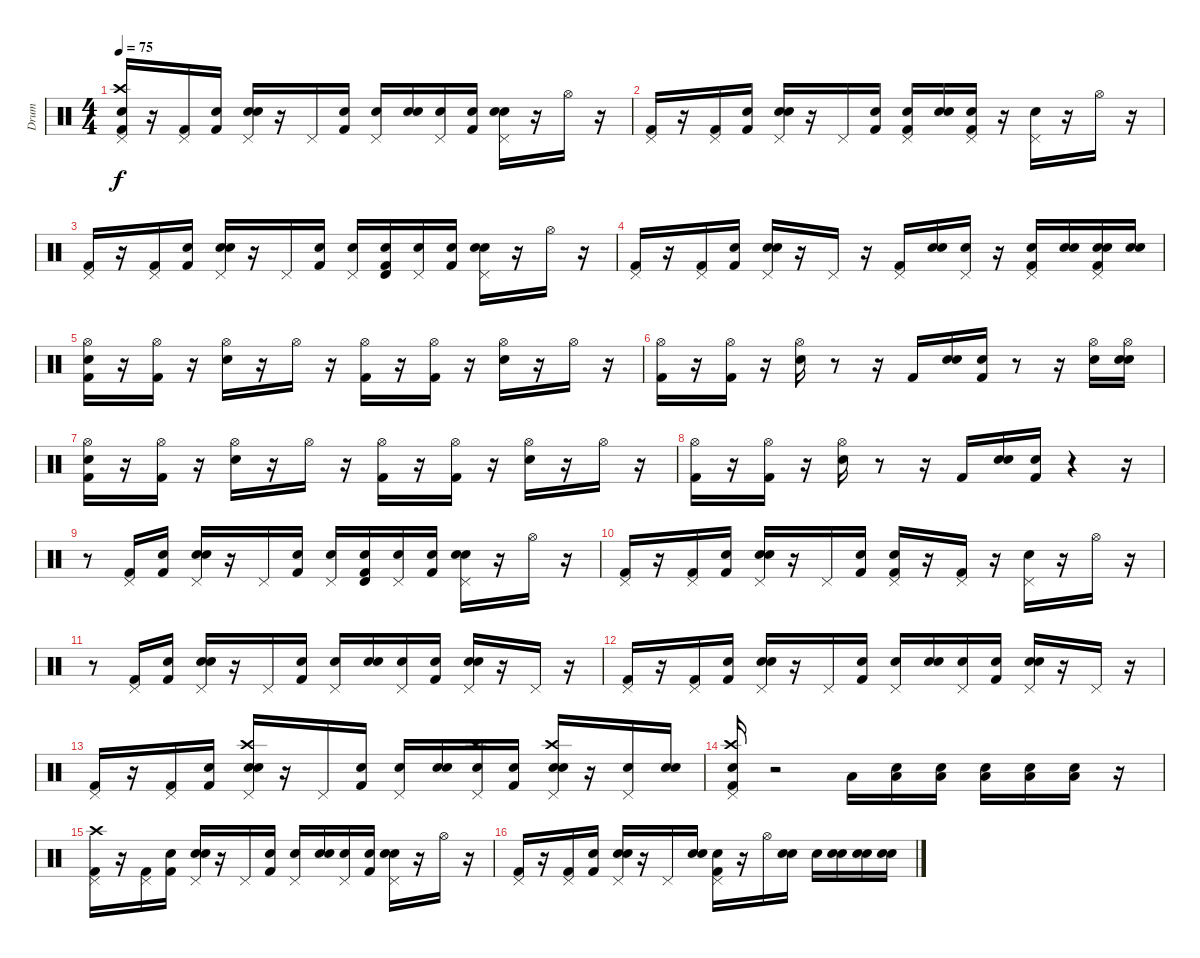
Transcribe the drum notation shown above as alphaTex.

\track ("Drum" "Drum") {instrument percussion}
\staff {score}
\articulation defaults
\ts (4 4)
\tempo 75
\clef neutral
\ks c
("Snare (hit)" "Crash high (hit)" "Pedal Hi-Hat (hit)" "Kick (hit) 2").16{dy f} r.16 ("Kick (hit) 2" "Pedal Hi-Hat (hit)").16 ("Snare (hit)" "Kick (hit) 2").16 ("Snare (hit)" "Pedal Hi-Hat (hit)" "Snare (hit) 2").16 r.16 "Pedal Hi-Hat (hit)".16 ("Snare (hit)" "Kick (hit) 2").16 ("Snare (hit)" "Pedal Hi-Hat (hit)").16 ("Snare (hit)" "Snare (hit) 2").16 ("Snare (hit)" "Pedal Hi-Hat (hit)").16 ("Snare (hit)" "Kick (hit) 2").16 ("Snare (hit)" "Pedal Hi-Hat (hit)" "Snare (hit) 2").16 r.16 "Hi-Hat (open)".16 r.16 |
("Pedal Hi-Hat (hit)" "Kick (hit) 2").16 r.16 ("Pedal Hi-Hat (hit)" "Kick (hit) 2").16 ("Snare (hit)" "Kick (hit) 2").16 ("Snare (hit)" "Pedal Hi-Hat (hit)" "Snare (hit) 2").16 r.16 "Pedal Hi-Hat (hit)".16 ("Snare (hit)" "Kick (hit) 2").16 ("Snare (hit)" "Kick (hit) 2" "Pedal Hi-Hat (hit)").16 ("Snare (hit)" "Snare (hit) 2").16 ("Snare (hit)" "Kick (hit) 2" "Pedal Hi-Hat (hit)").16 r.16 ("Pedal Hi-Hat (hit)" "Snare (hit) 2").16 r.16 "Hi-Hat (open)".16 r.16 |
("Pedal Hi-Hat (hit)" "Kick (hit) 2").16 r.16 ("Kick (hit) 2" "Pedal Hi-Hat (hit)").16 ("Snare (hit)" "Kick (hit) 2").16 ("Snare (hit)" "Pedal Hi-Hat (hit)" "Snare (hit) 2").16 r.16 "Pedal Hi-Hat (hit)".16 ("Snare (hit)" "Kick (hit) 2").16 ("Snare (hit)" "Pedal Hi-Hat (hit)").16 ("Snare (hit)" "Timbale high (hit)" "Kick (hit) 2").16 ("Snare (hit)" "Pedal Hi-Hat (hit)").16 ("Snare (hit)" "Kick (hit) 2").16 ("Snare (hit)" "Pedal Hi-Hat (hit)" "Snare (hit) 2").16 r.16 "Hi-Hat (open)".16 r.16 |
("Pedal Hi-Hat (hit)" "Kick (hit) 2").16 r.16 ("Pedal Hi-Hat (hit)" "Kick (hit) 2").16 ("Snare (hit)" "Kick (hit) 2").16 ("Snare (hit)" "Snare (hit) 2" "Pedal Hi-Hat (hit)").16 r.16 "Pedal Hi-Hat (hit)".16 r.16 ("Pedal Hi-Hat (hit)" "Kick (hit) 2").16 ("Snare (hit)" "Snare (hit) 2").16 ("Snare (hit)" "Pedal Hi-Hat (hit)").16 r.16 ("Snare (hit) 2" "Kick (hit) 2" "Pedal Hi-Hat (hit)").16 ("Snare (hit)" "Snare (hit) 2").16 ("Snare (hit)" "Snare (hit) 2" "Pedal Hi-Hat (hit)" "Kick (hit) 2").16 ("Snare (hit)" "Snare (hit) 2").16 |
("Snare (hit)" "Hi-Hat (open)" "Kick (hit) 2").16 r.16 ("Hi-Hat (open)" "Kick (hit) 2").16 r.16 ("Hi-Hat (open)" "Snare (hit) 2").16 r.16 "Hi-Hat (open)".16 r.16 ("Kick (hit) 2" "Hi-Hat (open)").16 r.16 ("Kick (hit) 2" "Hi-Hat (open)").16 r.16 ("Snare (hit) 2" "Hi-Hat (open)").16 r.16 "Hi-Hat (open)".16 r.16 |
("Hi-Hat (open)" "Kick (hit) 2").16 r.16 ("Hi-Hat (open)" "Kick (hit) 2").16 r.16 ("Snare (hit) 2" "Hi-Hat (open)").16 r.8 r.16 "Kick (hit) 2".16 ("Snare (hit)" "Electric Snare (hit)").16 ("Snare (hit)" "Kick (hit) 2").16 r.8 r.16 ("Hi-Hat (open)" "Snare (hit) 2").16 ("Snare (hit)" "Hi-Hat (open)" "Snare (hit) 2").16 |
("Snare (hit)" "Hi-Hat (open)" "Kick (hit) 2").16 r.16 ("Hi-Hat (open)" "Kick (hit) 2").16 r.16 ("Hi-Hat (open)" "Snare (hit) 2").16 r.16 "Hi-Hat (open)".16 r.16 ("Kick (hit) 2" "Hi-Hat (open)").16 r.16 ("Kick (hit) 2" "Hi-Hat (open)").16 r.16 ("Snare (hit) 2" "Hi-Hat (open)").16 r.16 "Hi-Hat (open)".16 r.16 |
("Hi-Hat (open)" "Kick (hit) 2").16 r.16 ("Hi-Hat (open)" "Kick (hit) 2").16 r.16 ("Snare (hit) 2" "Hi-Hat (open)").16 r.8 r.16 "Kick (hit) 2".16 ("Snare (hit)" "Electric Snare (hit)").16 ("Snare (hit)" "Kick (hit) 2").16 r.4 r.16 |
r.8 ("Kick (hit) 2" "Pedal Hi-Hat (hit)").16 ("Snare (hit)" "Kick (hit) 2").16 ("Snare (hit)" "Pedal Hi-Hat (hit)" "Snare (hit) 2").16 r.16 "Pedal Hi-Hat (hit)".16 ("Snare (hit)" "Kick (hit) 2").16 ("Snare (hit)" "Pedal Hi-Hat (hit)").16 ("Snare (hit)" "Timbale high (hit)" "Kick (hit) 2").16 ("Snare (hit)" "Pedal Hi-Hat (hit)").16 ("Snare (hit)" "Kick (hit) 2").16 ("Snare (hit)" "Pedal Hi-Hat (hit)" "Snare (hit) 2").16 r.16 "Hi-Hat (open)".16 r.16 |
("Pedal Hi-Hat (hit)" "Kick (hit) 2").16 r.16 ("Pedal Hi-Hat (hit)" "Kick (hit) 2").16 ("Snare (hit)" "Kick (hit) 2").16 ("Snare (hit)" "Snare (hit) 2" "Pedal Hi-Hat (hit)").16 r.16 "Pedal Hi-Hat (hit)".16 ("Snare (hit)" "Kick (hit) 2").16 ("Snare (hit)" "Pedal Hi-Hat (hit)" "Kick (hit) 2").16 r.16 ("Kick (hit) 2" "Pedal Hi-Hat (hit)").16 r.16 ("Pedal Hi-Hat (hit)" "Snare (hit) 2").16 r.16 "Hi-Hat (open)".16 r.16 |
r.8 ("Kick (hit) 2" "Pedal Hi-Hat (hit)").16 ("Snare (hit)" "Kick (hit) 2").16 ("Snare (hit)" "Pedal Hi-Hat (hit)" "Snare (hit) 2").16 r.16 "Pedal Hi-Hat (hit)".16 ("Snare (hit)" "Kick (hit) 2").16 ("Snare (hit)" "Pedal Hi-Hat (hit)").16 ("Snare (hit)" "Snare (hit) 2").16 ("Snare (hit)" "Pedal Hi-Hat (hit)").16 ("Snare (hit)" "Kick (hit) 2").16 ("Snare (hit)" "Pedal Hi-Hat (hit)" "Snare (hit) 2").16 r.16 "Pedal Hi-Hat (hit)".16 r.16 |
("Kick (hit) 2" "Pedal Hi-Hat (hit)").16 r.16 ("Kick (hit) 2" "Pedal Hi-Hat (hit)").16 ("Snare (hit)" "Kick (hit) 2").16 ("Snare (hit)" "Pedal Hi-Hat (hit)" "Snare (hit) 2").16 r.16 "Pedal Hi-Hat (hit)".16 ("Snare (hit)" "Kick (hit) 2").16 ("Snare (hit)" "Pedal Hi-Hat (hit)").16 ("Snare (hit)" "Snare (hit) 2").16 ("Snare (hit)" "Pedal Hi-Hat (hit)").16 ("Snare (hit)" "Kick (hit) 2").16 ("Snare (hit)" "Pedal Hi-Hat (hit)" "Snare (hit) 2").16 r.16 "Pedal Hi-Hat (hit)".16 r.16 |
("Pedal Hi-Hat (hit)" "Kick (hit) 2").16 r.16 ("Kick (hit) 2" "Pedal Hi-Hat (hit)").16 ("Snare (hit)" "Kick (hit) 2").16 ("Snare (hit)" "Pedal Hi-Hat (hit)" "Snare (hit) 2" "Crash high (hit)").16 r.16 "Pedal Hi-Hat (hit)".16 ("Snare (hit)" "Kick (hit) 2").16 ("Snare (hit)" "Pedal Hi-Hat (hit)").16 ("Snare (hit)" "Snare (hit) 2").16 ("Snare (hit)" "Crash high (hit)" "Pedal Hi-Hat (hit)").16 ("Snare (hit)" "Kick (hit) 2").16 ("Snare (hit)" "Crash high (hit)" "Pedal Hi-Hat (hit)" "Snare (hit) 2").16 r.16 ("Pedal Hi-Hat (hit)" "Snare (hit) 2").16 ("Snare (hit)" "Snare (hit) 2").16 |
("Snare (hit)" "Crash high (hit)" "Pedal Hi-Hat (hit)" "Kick (hit) 2").16 r.2 "Low Tom (hit)".16 ("Snare (hit)" "Low Tom (hit)").16 ("Snare (hit)" "Low Tom (hit)").16 ("Snare (hit)" "Low Tom (hit)").16 ("Snare (hit)" "Low Tom (hit)").16 ("Snare (hit)" "Low Tom (hit)").16 r.16 |
("Crash high (hit)" "Pedal Hi-Hat (hit)" "Kick (hit) 2").16 r.16 ("Kick (hit) 2" "Pedal Hi-Hat (hit)").16 ("Snare (hit)" "Kick (hit) 2").16 ("Snare (hit)" "Pedal Hi-Hat (hit)" "Snare (hit) 2").16 r.16 "Pedal Hi-Hat (hit)".16 ("Snare (hit)" "Kick (hit) 2").16 ("Snare (hit)" "Pedal Hi-Hat (hit)").16 ("Snare (hit)" "Snare (hit) 2").16 ("Snare (hit)" "Pedal Hi-Hat (hit)").16 ("Snare (hit)" "Kick (hit) 2").16 ("Snare (hit)" "Pedal Hi-Hat (hit)" "Snare (hit) 2").16 r.16 "Hi-Hat (open)".16 r.16 |
("Pedal Hi-Hat (hit)" "Kick (hit) 2").16 r.16 ("Pedal Hi-Hat (hit)" "Kick (hit) 2").16 ("Snare (hit)" "Kick (hit) 2").16 ("Snare (hit)" "Snare (hit) 2" "Pedal Hi-Hat (hit)").16 r.16 "Pedal Hi-Hat (hit)".16 ("Snare (hit)" "Snare (hit) 2").16 ("Snare (hit)" "Pedal Hi-Hat (hit)" "Kick (hit) 2").16 r.16 "Hi-Hat (open)".16 ("Snare (hit)" "Snare (hit) 2").16 "Snare (hit) 2".16 ("Snare (hit)" "Snare (hit) 2").16 ("Snare (hit)" "Snare (hit) 2").16 ("Snare (hit)" "Snare (hit) 2").16
